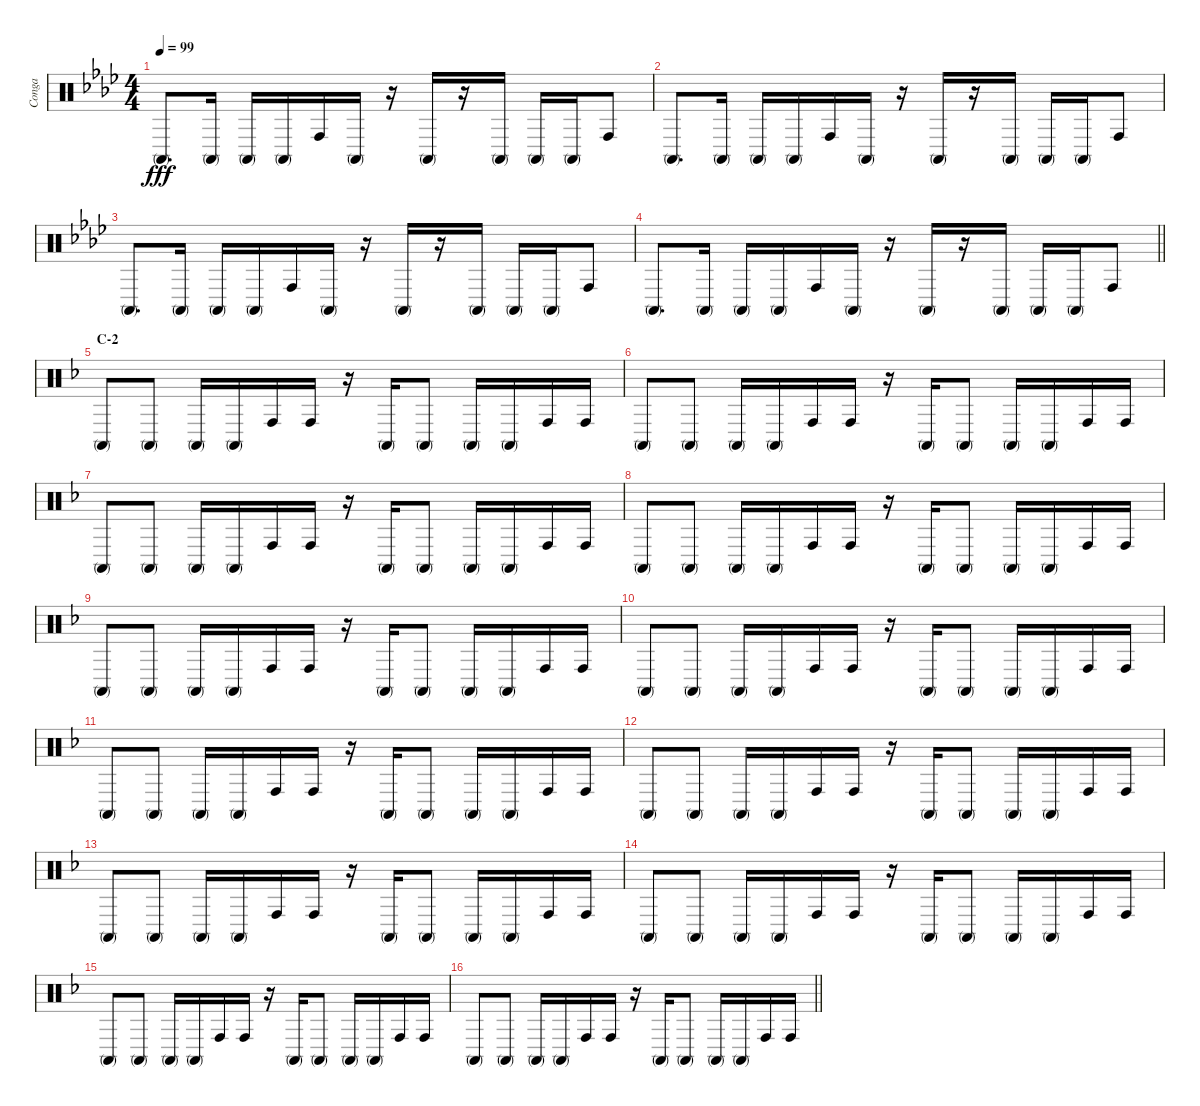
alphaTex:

\track ("Conga" "Conga") {instrument percussion}
\staff {score}
\articulation defaults
\ts (4 4)
\tempo 99
\clef neutral
\ks ab "Conga high (mute)".8{d dy fff} "Conga high (mute)".16 "Conga high (mute)".16 "Conga high (mute)".16 "Conga high (hit)".16 "Conga high (mute)".16
r.16 "Conga high (mute)".16 r.16 "Conga high (mute)".16 "Conga high (mute)".16 "Conga high (mute)".16 "Conga high (hit)".8 |
"Conga high (mute)".8{d} "Conga high (mute)".16 "Conga high (mute)".16 "Conga high (mute)".16 "Conga high (hit)".16 "Conga high (mute)".16 r.16 "Conga high (mute)".16 r.16 "Conga high (mute)".16 "Conga high (mute)".16 "Conga high (mute)".16 "Conga high (hit)".8 |
"Conga high (mute)".8{d} "Conga high (mute)".16 "Conga high (mute)".16 "Conga high (mute)".16 "Conga high (hit)".16 "Conga high (mute)".16 r.16 "Conga high (mute)".16 r.16 "Conga high (mute)".16 "Conga high (mute)".16 "Conga high (mute)".16 "Conga high (hit)".8 |
\barLineRight lightlight "Conga high (mute)".8{d} "Conga high (mute)".16 "Conga high (mute)".16 "Conga high (mute)".16 "Conga high (hit)".16 "Conga high (mute)".16
r.16 "Conga high (mute)".16 r.16 "Conga high (mute)".16 "Conga high (mute)".16 "Conga high (mute)".16 "Conga high (hit)".8 |
\section ("" "C-2")
\ks f "Conga high (mute)".8 "Conga high (mute)".8 "Conga high (mute)".16 "Conga high (mute)".16 "Conga high (hit)".16 "Conga high (hit)".16
r.16 "Conga high (mute)".16 "Conga high (mute)".8 "Conga high (mute)".16 "Conga high (mute)".16 "Conga high (hit)".16 "Conga high (hit)".16 |
"Conga high (mute)".8 "Conga high (mute)".8 "Conga high (mute)".16 "Conga high (mute)".16 "Conga high (hit)".16 "Conga high (hit)".16 r.16 "Conga high (mute)".16 "Conga high (mute)".8 "Conga high (mute)".16 "Conga high (mute)".16 "Conga high (hit)".16 "Conga high (hit)".16 |
"Conga high (mute)".8 "Conga high (mute)".8 "Conga high (mute)".16 "Conga high (mute)".16 "Conga high (hit)".16 "Conga high (hit)".16 r.16 "Conga high (mute)".16 "Conga high (mute)".8 "Conga high (mute)".16 "Conga high (mute)".16 "Conga high (hit)".16 "Conga high (hit)".16 |
"Conga high (mute)".8 "Conga high (mute)".8 "Conga high (mute)".16 "Conga high (mute)".16 "Conga high (hit)".16 "Conga high (hit)".16 r.16 "Conga high (mute)".16 "Conga high (mute)".8 "Conga high (mute)".16 "Conga high (mute)".16 "Conga high (hit)".16 "Conga high (hit)".16 |
"Conga high (mute)".8 "Conga high (mute)".8 "Conga high (mute)".16 "Conga high (mute)".16 "Conga high (hit)".16 "Conga high (hit)".16 r.16 "Conga high (mute)".16 "Conga high (mute)".8 "Conga high (mute)".16 "Conga high (mute)".16 "Conga high (hit)".16 "Conga high (hit)".16 |
"Conga high (mute)".8 "Conga high (mute)".8 "Conga high (mute)".16 "Conga high (mute)".16 "Conga high (hit)".16 "Conga high (hit)".16 r.16 "Conga high (mute)".16 "Conga high (mute)".8 "Conga high (mute)".16 "Conga high (mute)".16 "Conga high (hit)".16 "Conga high (hit)".16 |
"Conga high (mute)".8 "Conga high (mute)".8 "Conga high (mute)".16 "Conga high (mute)".16 "Conga high (hit)".16 "Conga high (hit)".16 r.16 "Conga high (mute)".16 "Conga high (mute)".8 "Conga high (mute)".16 "Conga high (mute)".16 "Conga high (hit)".16 "Conga high (hit)".16 |
"Conga high (mute)".8 "Conga high (mute)".8 "Conga high (mute)".16 "Conga high (mute)".16 "Conga high (hit)".16 "Conga high (hit)".16 r.16 "Conga high (mute)".16 "Conga high (mute)".8 "Conga high (mute)".16 "Conga high (mute)".16 "Conga high (hit)".16 "Conga high (hit)".16 |
"Conga high (mute)".8 "Conga high (mute)".8 "Conga high (mute)".16 "Conga high (mute)".16 "Conga high (hit)".16 "Conga high (hit)".16 r.16 "Conga high (mute)".16 "Conga high (mute)".8 "Conga high (mute)".16 "Conga high (mute)".16 "Conga high (hit)".16 "Conga high (hit)".16 |
"Conga high (mute)".8 "Conga high (mute)".8 "Conga high (mute)".16 "Conga high (mute)".16 "Conga high (hit)".16 "Conga high (hit)".16 r.16 "Conga high (mute)".16 "Conga high (mute)".8 "Conga high (mute)".16 "Conga high (mute)".16 "Conga high (hit)".16 "Conga high (hit)".16 |
"Conga high (mute)".8 "Conga high (mute)".8 "Conga high (mute)".16 "Conga high (mute)".16 "Conga high (hit)".16 "Conga high (hit)".16 r.16 "Conga high (mute)".16 "Conga high (mute)".8 "Conga high (mute)".16 "Conga high (mute)".16 "Conga high (hit)".16 "Conga high (hit)".16 |
\barLineRight lightlight "Conga high (mute)".8 "Conga high (mute)".8 "Conga high (mute)".16 "Conga high (mute)".16 "Conga high (hit)".16 "Conga high (hit)".16
r.16 "Conga high (mute)".16 "Conga high (mute)".8 "Conga high (mute)".16 "Conga high (mute)".16 "Conga high (hit)".16 "Conga high (hit)".16
